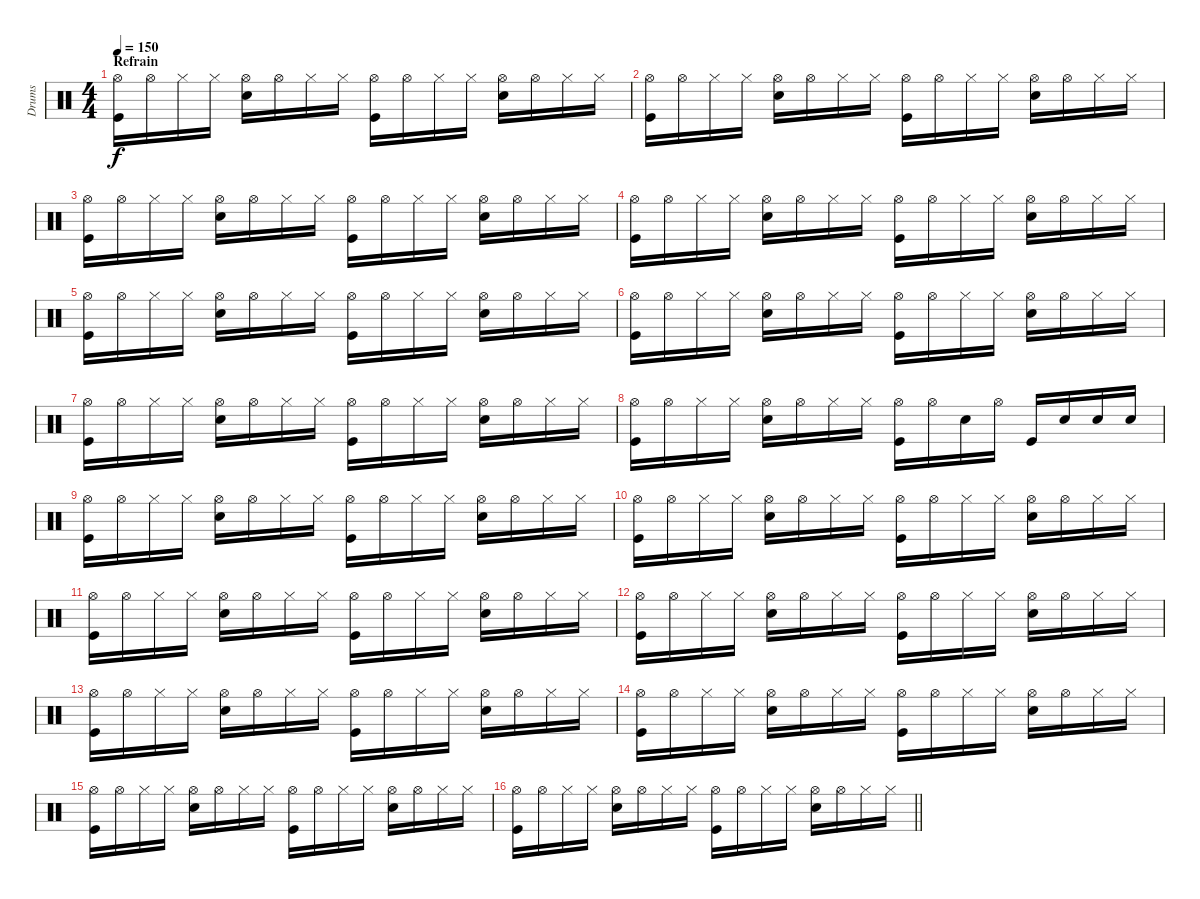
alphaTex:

\track ("Drums" "Drums") {instrument percussion}
\staff {score}
\articulation defaults
\ts (4 4)
\section ("" "Refrain")
\tempo 150
\clef neutral
\ks c
("Hi-Hat (open)" "Kick (hit)").16{dy f} "Hi-Hat (open)".16 "Hi-Hat (closed)".16 "Hi-Hat (closed)".16 ("Hi-Hat (open)" "Snare (hit) 2").16 "Hi-Hat (open)".16 "Hi-Hat (closed)".16 "Hi-Hat (closed)".16 ("Hi-Hat (open)" "Kick (hit)").16 "Hi-Hat (open)".16 "Hi-Hat (closed)".16 "Hi-Hat (closed)".16 ("Hi-Hat (open)" "Snare (hit) 2").16 "Hi-Hat (open)".16 "Hi-Hat (closed)".16 "Hi-Hat (closed)".16 |
("Hi-Hat (open)" "Kick (hit)").16 "Hi-Hat (open)".16 "Hi-Hat (closed)".16 "Hi-Hat (closed)".16 ("Hi-Hat (open)" "Snare (hit) 2").16 "Hi-Hat (open)".16 "Hi-Hat (closed)".16 "Hi-Hat (closed)".16 ("Hi-Hat (open)" "Kick (hit)").16 "Hi-Hat (open)".16 "Hi-Hat (closed)".16 "Hi-Hat (closed)".16 ("Hi-Hat (open)" "Snare (hit) 2").16 "Hi-Hat (open)".16 "Hi-Hat (closed)".16 "Hi-Hat (closed)".16 |
("Hi-Hat (open)" "Kick (hit)").16 "Hi-Hat (open)".16 "Hi-Hat (closed)".16 "Hi-Hat (closed)".16 ("Hi-Hat (open)" "Snare (hit) 2").16 "Hi-Hat (open)".16 "Hi-Hat (closed)".16 "Hi-Hat (closed)".16 ("Hi-Hat (open)" "Kick (hit)").16 "Hi-Hat (open)".16 "Hi-Hat (closed)".16 "Hi-Hat (closed)".16 ("Hi-Hat (open)" "Snare (hit) 2").16 "Hi-Hat (open)".16 "Hi-Hat (closed)".16 "Hi-Hat (closed)".16 |
("Hi-Hat (open)" "Kick (hit)").16 "Hi-Hat (open)".16 "Hi-Hat (closed)".16 "Hi-Hat (closed)".16 ("Hi-Hat (open)" "Snare (hit) 2").16 "Hi-Hat (open)".16 "Hi-Hat (closed)".16 "Hi-Hat (closed)".16 ("Hi-Hat (open)" "Kick (hit)").16 "Hi-Hat (open)".16 "Hi-Hat (closed)".16 "Hi-Hat (closed)".16 ("Hi-Hat (open)" "Snare (hit) 2").16 "Hi-Hat (open)".16 "Hi-Hat (closed)".16 "Hi-Hat (closed)".16 |
("Hi-Hat (open)" "Kick (hit)").16 "Hi-Hat (open)".16 "Hi-Hat (closed)".16 "Hi-Hat (closed)".16 ("Hi-Hat (open)" "Snare (hit) 2").16 "Hi-Hat (open)".16 "Hi-Hat (closed)".16 "Hi-Hat (closed)".16 ("Hi-Hat (open)" "Kick (hit)").16 "Hi-Hat (open)".16 "Hi-Hat (closed)".16 "Hi-Hat (closed)".16 ("Hi-Hat (open)" "Snare (hit) 2").16 "Hi-Hat (open)".16 "Hi-Hat (closed)".16 "Hi-Hat (closed)".16 |
("Hi-Hat (open)" "Kick (hit)").16 "Hi-Hat (open)".16 "Hi-Hat (closed)".16 "Hi-Hat (closed)".16 ("Hi-Hat (open)" "Snare (hit) 2").16 "Hi-Hat (open)".16 "Hi-Hat (closed)".16 "Hi-Hat (closed)".16 ("Hi-Hat (open)" "Kick (hit)").16 "Hi-Hat (open)".16 "Hi-Hat (closed)".16 "Hi-Hat (closed)".16 ("Hi-Hat (open)" "Snare (hit) 2").16 "Hi-Hat (open)".16 "Hi-Hat (closed)".16 "Hi-Hat (closed)".16 |
("Hi-Hat (open)" "Kick (hit)").16 "Hi-Hat (open)".16 "Hi-Hat (closed)".16 "Hi-Hat (closed)".16 ("Hi-Hat (open)" "Snare (hit) 2").16 "Hi-Hat (open)".16 "Hi-Hat (closed)".16 "Hi-Hat (closed)".16 ("Hi-Hat (open)" "Kick (hit)").16 "Hi-Hat (open)".16 "Hi-Hat (closed)".16 "Hi-Hat (closed)".16 ("Hi-Hat (open)" "Snare (hit) 2").16 "Hi-Hat (open)".16 "Hi-Hat (closed)".16 "Hi-Hat (closed)".16 |
("Hi-Hat (open)" "Kick (hit)").16 "Hi-Hat (open)".16 "Hi-Hat (closed)".16 "Hi-Hat (closed)".16 ("Hi-Hat (open)" "Snare (hit) 2").16 "Hi-Hat (open)".16 "Hi-Hat (closed)".16 "Hi-Hat (closed)".16 ("Hi-Hat (open)" "Kick (hit)").16 "Hi-Hat (open)".16 "Snare (hit) 2".16 "Hi-Hat (open)".16 "Kick (hit)".16 "Snare (hit) 2".16 "Snare (hit) 2".16 "Snare (hit) 2".16 |
("Hi-Hat (open)" "Kick (hit)").16 "Hi-Hat (open)".16 "Hi-Hat (closed)".16 "Hi-Hat (closed)".16 ("Hi-Hat (open)" "Snare (hit) 2").16 "Hi-Hat (open)".16 "Hi-Hat (closed)".16 "Hi-Hat (closed)".16 ("Hi-Hat (open)" "Kick (hit)").16 "Hi-Hat (open)".16 "Hi-Hat (closed)".16 "Hi-Hat (closed)".16 ("Hi-Hat (open)" "Snare (hit) 2").16 "Hi-Hat (open)".16 "Hi-Hat (closed)".16 "Hi-Hat (closed)".16 |
("Hi-Hat (open)" "Kick (hit)").16 "Hi-Hat (open)".16 "Hi-Hat (closed)".16 "Hi-Hat (closed)".16 ("Hi-Hat (open)" "Snare (hit) 2").16 "Hi-Hat (open)".16 "Hi-Hat (closed)".16 "Hi-Hat (closed)".16 ("Hi-Hat (open)" "Kick (hit)").16 "Hi-Hat (open)".16 "Hi-Hat (closed)".16 "Hi-Hat (closed)".16 ("Hi-Hat (open)" "Snare (hit) 2").16 "Hi-Hat (open)".16 "Hi-Hat (closed)".16 "Hi-Hat (closed)".16 |
("Hi-Hat (open)" "Kick (hit)").16 "Hi-Hat (open)".16 "Hi-Hat (closed)".16 "Hi-Hat (closed)".16 ("Hi-Hat (open)" "Snare (hit) 2").16 "Hi-Hat (open)".16 "Hi-Hat (closed)".16 "Hi-Hat (closed)".16 ("Hi-Hat (open)" "Kick (hit)").16 "Hi-Hat (open)".16 "Hi-Hat (closed)".16 "Hi-Hat (closed)".16 ("Hi-Hat (open)" "Snare (hit) 2").16 "Hi-Hat (open)".16 "Hi-Hat (closed)".16 "Hi-Hat (closed)".16 |
("Hi-Hat (open)" "Kick (hit)").16 "Hi-Hat (open)".16 "Hi-Hat (closed)".16 "Hi-Hat (closed)".16 ("Hi-Hat (open)" "Snare (hit) 2").16 "Hi-Hat (open)".16 "Hi-Hat (closed)".16 "Hi-Hat (closed)".16 ("Hi-Hat (open)" "Kick (hit)").16 "Hi-Hat (open)".16 "Hi-Hat (closed)".16 "Hi-Hat (closed)".16 ("Hi-Hat (open)" "Snare (hit) 2").16 "Hi-Hat (open)".16 "Hi-Hat (closed)".16 "Hi-Hat (closed)".16 |
("Hi-Hat (open)" "Kick (hit)").16 "Hi-Hat (open)".16 "Hi-Hat (closed)".16 "Hi-Hat (closed)".16 ("Hi-Hat (open)" "Snare (hit) 2").16 "Hi-Hat (open)".16 "Hi-Hat (closed)".16 "Hi-Hat (closed)".16 ("Hi-Hat (open)" "Kick (hit)").16 "Hi-Hat (open)".16 "Hi-Hat (closed)".16 "Hi-Hat (closed)".16 ("Hi-Hat (open)" "Snare (hit) 2").16 "Hi-Hat (open)".16 "Hi-Hat (closed)".16 "Hi-Hat (closed)".16 |
("Hi-Hat (open)" "Kick (hit)").16 "Hi-Hat (open)".16 "Hi-Hat (closed)".16 "Hi-Hat (closed)".16 ("Hi-Hat (open)" "Snare (hit) 2").16 "Hi-Hat (open)".16 "Hi-Hat (closed)".16 "Hi-Hat (closed)".16 ("Hi-Hat (open)" "Kick (hit)").16 "Hi-Hat (open)".16 "Hi-Hat (closed)".16 "Hi-Hat (closed)".16 ("Hi-Hat (open)" "Snare (hit) 2").16 "Hi-Hat (open)".16 "Hi-Hat (closed)".16 "Hi-Hat (closed)".16 |
("Hi-Hat (open)" "Kick (hit)").16 "Hi-Hat (open)".16 "Hi-Hat (closed)".16 "Hi-Hat (closed)".16 ("Hi-Hat (open)" "Snare (hit) 2").16 "Hi-Hat (open)".16 "Hi-Hat (closed)".16 "Hi-Hat (closed)".16 ("Hi-Hat (open)" "Kick (hit)").16 "Hi-Hat (open)".16 "Hi-Hat (closed)".16 "Hi-Hat (closed)".16 ("Hi-Hat (open)" "Snare (hit) 2").16 "Hi-Hat (open)".16 "Hi-Hat (closed)".16 "Hi-Hat (closed)".16 |
\barLineRight lightlight
("Hi-Hat (open)" "Kick (hit)").16 "Hi-Hat (open)".16 "Hi-Hat (closed)".16 "Hi-Hat (closed)".16 ("Hi-Hat (open)" "Snare (hit) 2").16 "Hi-Hat (open)".16 "Hi-Hat (closed)".16 "Hi-Hat (closed)".16 ("Hi-Hat (open)" "Kick (hit)").16 "Hi-Hat (open)".16 "Hi-Hat (closed)".16 "Hi-Hat (closed)".16 ("Hi-Hat (open)" "Snare (hit) 2").16 "Hi-Hat (open)".16 "Hi-Hat (closed)".16 "Hi-Hat (closed)".16
